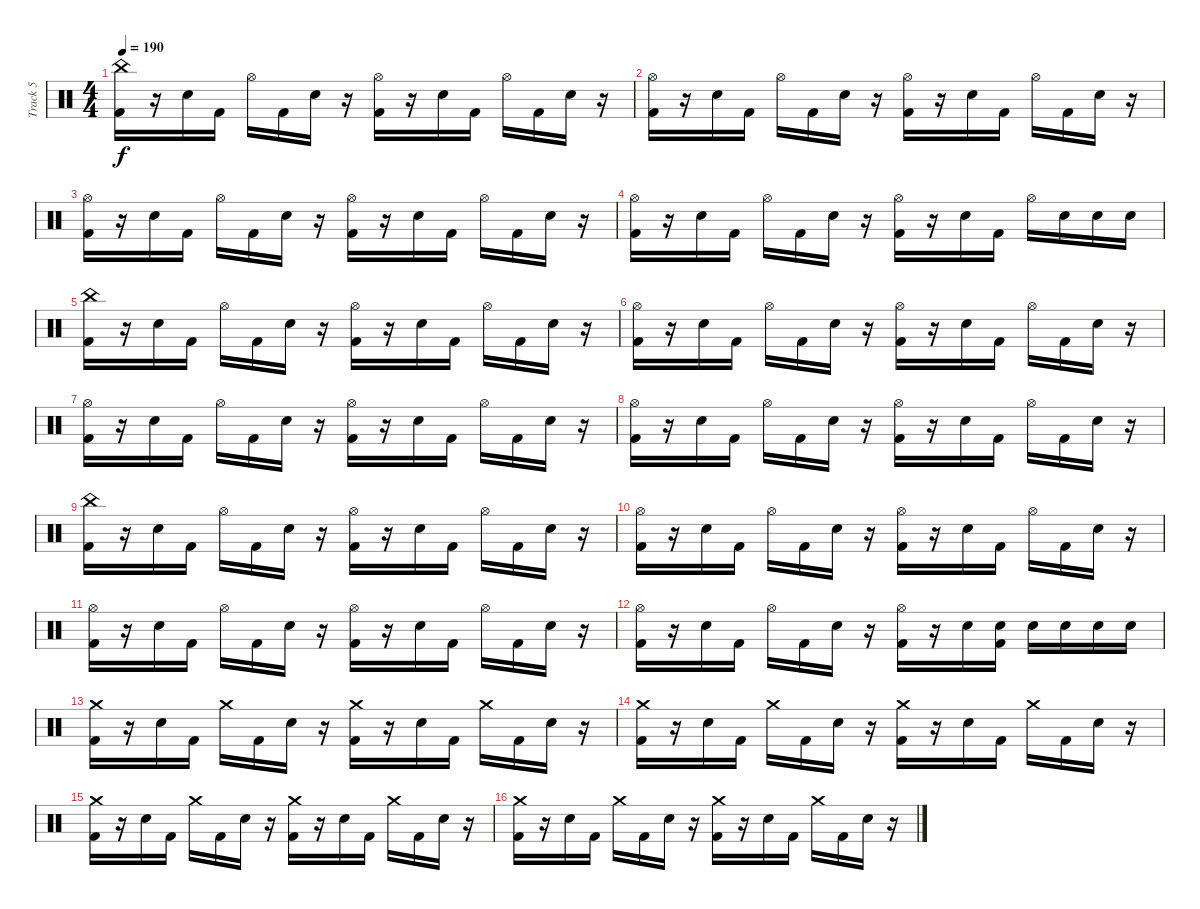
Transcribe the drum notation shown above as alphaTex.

\track ("Track 5" "Track 5") {instrument percussion}
\staff {score}
\articulation defaults
\ts (4 4)
\tempo 190
\clef neutral
\ks c
("China (hit)" "Kick (hit) 2").16{dy f} r.16 "Electric Snare (hit)".16 "Kick (hit) 2".16 "Hi-Hat (open)".16 "Kick (hit) 2".16 "Electric Snare (hit)".16 r.16 ("Hi-Hat (open)" "Kick (hit) 2").16 r.16 "Electric Snare (hit)".16 "Kick (hit) 2".16 "Hi-Hat (open)".16 "Kick (hit) 2".16 "Electric Snare (hit)".16 r.16 |
("Hi-Hat (open)" "Kick (hit) 2").16 r.16 "Electric Snare (hit)".16 "Kick (hit) 2".16 "Hi-Hat (open)".16 "Kick (hit) 2".16 "Electric Snare (hit)".16 r.16 ("Hi-Hat (open)" "Kick (hit) 2").16 r.16 "Electric Snare (hit)".16 "Kick (hit) 2".16 "Hi-Hat (open)".16 "Kick (hit) 2".16 "Electric Snare (hit)".16 r.16 |
("Hi-Hat (open)" "Kick (hit) 2").16 r.16 "Electric Snare (hit)".16 "Kick (hit) 2".16 "Hi-Hat (open)".16 "Kick (hit) 2".16 "Electric Snare (hit)".16 r.16 ("Hi-Hat (open)" "Kick (hit) 2").16 r.16 "Electric Snare (hit)".16 "Kick (hit) 2".16 "Hi-Hat (open)".16 "Kick (hit) 2".16 "Electric Snare (hit)".16 r.16 |
("Hi-Hat (open)" "Kick (hit) 2").16 r.16 "Electric Snare (hit)".16 "Kick (hit) 2".16 "Hi-Hat (open)".16 "Kick (hit) 2".16 "Electric Snare (hit)".16 r.16 ("Hi-Hat (open)" "Kick (hit) 2").16 r.16 "Electric Snare (hit)".16 "Kick (hit) 2".16 "Hi-Hat (open)".16 "Electric Snare (hit)".16 "Electric Snare (hit)".16 "Electric Snare (hit)".16 |
("China (hit)" "Kick (hit) 2").16 r.16 "Electric Snare (hit)".16 "Kick (hit) 2".16 "Hi-Hat (open)".16 "Kick (hit) 2".16 "Electric Snare (hit)".16 r.16 ("Hi-Hat (open)" "Kick (hit) 2").16 r.16 "Electric Snare (hit)".16 "Kick (hit) 2".16 "Hi-Hat (open)".16 "Kick (hit) 2".16 "Electric Snare (hit)".16 r.16 |
("Hi-Hat (open)" "Kick (hit) 2").16 r.16 "Electric Snare (hit)".16 "Kick (hit) 2".16 "Hi-Hat (open)".16 "Kick (hit) 2".16 "Electric Snare (hit)".16 r.16 ("Hi-Hat (open)" "Kick (hit) 2").16 r.16 "Electric Snare (hit)".16 "Kick (hit) 2".16 "Hi-Hat (open)".16 "Kick (hit) 2".16 "Electric Snare (hit)".16 r.16 |
("Hi-Hat (open)" "Kick (hit) 2").16 r.16 "Electric Snare (hit)".16 "Kick (hit) 2".16 "Hi-Hat (open)".16 "Kick (hit) 2".16 "Electric Snare (hit)".16 r.16 ("Hi-Hat (open)" "Kick (hit) 2").16 r.16 "Electric Snare (hit)".16 "Kick (hit) 2".16 "Hi-Hat (open)".16 "Kick (hit) 2".16 "Electric Snare (hit)".16 r.16 |
("Hi-Hat (open)" "Kick (hit) 2").16 r.16 "Electric Snare (hit)".16 "Kick (hit) 2".16 "Hi-Hat (open)".16 "Kick (hit) 2".16 "Electric Snare (hit)".16 r.16 ("Hi-Hat (open)" "Kick (hit) 2").16 r.16 "Electric Snare (hit)".16 "Kick (hit) 2".16 "Hi-Hat (open)".16 "Kick (hit) 2".16 "Electric Snare (hit)".16 r.16 |
("China (hit)" "Kick (hit) 2").16 r.16 "Electric Snare (hit)".16 "Kick (hit) 2".16 "Hi-Hat (open)".16 "Kick (hit) 2".16 "Electric Snare (hit)".16 r.16 ("Hi-Hat (open)" "Kick (hit) 2").16 r.16 "Electric Snare (hit)".16 "Kick (hit) 2".16 "Hi-Hat (open)".16 "Kick (hit) 2".16 "Electric Snare (hit)".16 r.16 |
("Hi-Hat (open)" "Kick (hit) 2").16 r.16 "Electric Snare (hit)".16 "Kick (hit) 2".16 "Hi-Hat (open)".16 "Kick (hit) 2".16 "Electric Snare (hit)".16 r.16 ("Hi-Hat (open)" "Kick (hit) 2").16 r.16 "Electric Snare (hit)".16 "Kick (hit) 2".16 "Hi-Hat (open)".16 "Kick (hit) 2".16 "Electric Snare (hit)".16 r.16 |
("Hi-Hat (open)" "Kick (hit) 2").16 r.16 "Electric Snare (hit)".16 "Kick (hit) 2".16 "Hi-Hat (open)".16 "Kick (hit) 2".16 "Electric Snare (hit)".16 r.16 ("Hi-Hat (open)" "Kick (hit) 2").16 r.16 "Electric Snare (hit)".16 "Kick (hit) 2".16 "Hi-Hat (open)".16 "Kick (hit) 2".16 "Electric Snare (hit)".16 r.16 |
("Hi-Hat (open)" "Kick (hit) 2").16 r.16 "Electric Snare (hit)".16 "Kick (hit) 2".16 "Hi-Hat (open)".16 "Kick (hit) 2".16 "Electric Snare (hit)".16 r.16 ("Hi-Hat (open)" "Kick (hit) 2").16 r.16 "Electric Snare (hit)".16 ("Electric Snare (hit)" "Kick (hit) 2").16 "Electric Snare (hit)".16 "Electric Snare (hit)".16 "Electric Snare (hit)".16 "Electric Snare (hit)".16 |
("Crash medium (hit)" "Kick (hit) 2").16 r.16 "Electric Snare (hit)".16 "Kick (hit) 2".16 "Crash medium (hit)".16 "Kick (hit) 2".16 "Electric Snare (hit)".16 r.16 ("Crash medium (hit)" "Kick (hit) 2").16 r.16 "Electric Snare (hit)".16 "Kick (hit) 2".16 "Crash medium (hit)".16 "Kick (hit) 2".16 "Electric Snare (hit)".16 r.16 |
("Crash medium (hit)" "Kick (hit) 2").16 r.16 "Electric Snare (hit)".16 "Kick (hit) 2".16 "Crash medium (hit)".16 "Kick (hit) 2".16 "Electric Snare (hit)".16 r.16 ("Crash medium (hit)" "Kick (hit) 2").16 r.16 "Electric Snare (hit)".16 "Kick (hit) 2".16 "Crash medium (hit)".16 "Kick (hit) 2".16 "Electric Snare (hit)".16 r.16 |
("Crash medium (hit)" "Kick (hit) 2").16 r.16 "Electric Snare (hit)".16 "Kick (hit) 2".16 "Crash medium (hit)".16 "Kick (hit) 2".16 "Electric Snare (hit)".16 r.16 ("Crash medium (hit)" "Kick (hit) 2").16 r.16 "Electric Snare (hit)".16 "Kick (hit) 2".16 "Crash medium (hit)".16 "Kick (hit) 2".16 "Electric Snare (hit)".16 r.16 |
("Crash medium (hit)" "Kick (hit) 2").16 r.16 "Electric Snare (hit)".16 "Kick (hit) 2".16 "Crash medium (hit)".16 "Kick (hit) 2".16 "Electric Snare (hit)".16 r.16 ("Crash medium (hit)" "Kick (hit) 2").16 r.16 "Electric Snare (hit)".16 "Kick (hit) 2".16 "Crash medium (hit)".16 "Kick (hit) 2".16 "Electric Snare (hit)".16 r.16
